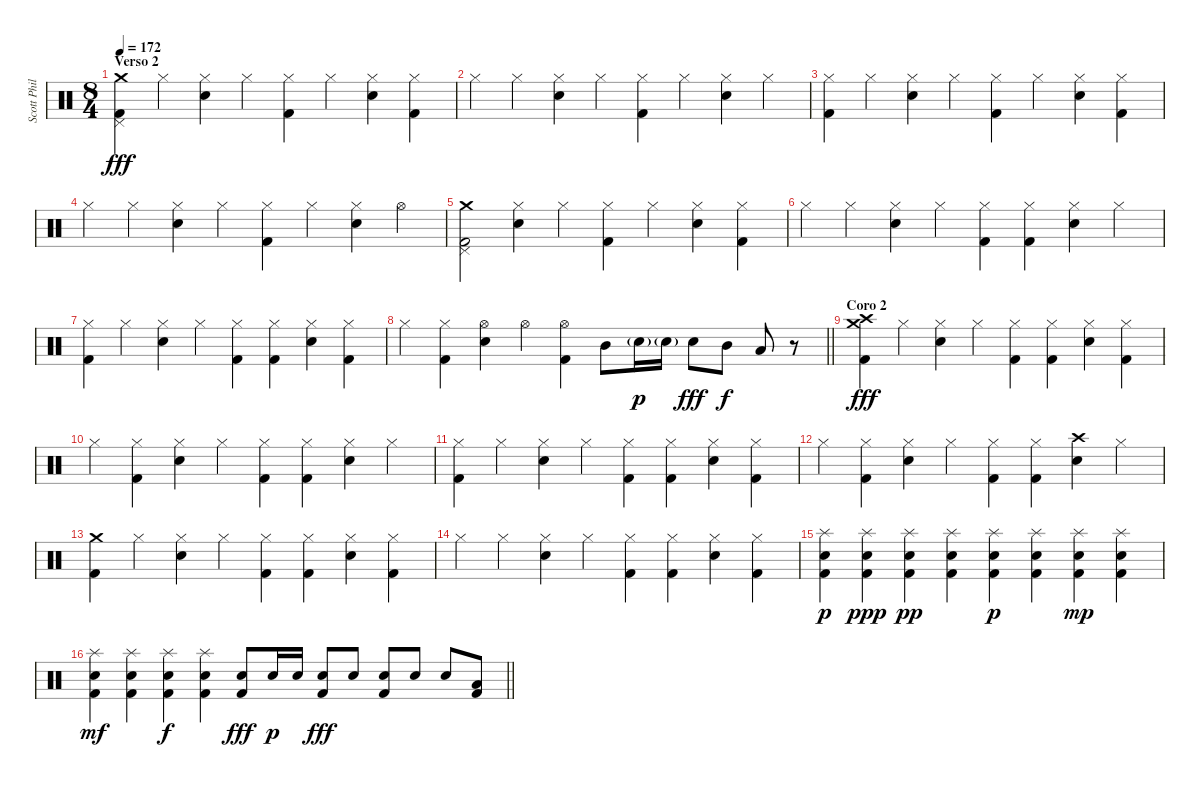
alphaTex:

\track ("Scott Phillips [Drums]" "Scott Phil") {instrument percussion}
\staff {score}
\articulation defaults
\ts (8 4)
\section ("" "Verso 2")
\tempo 172
\clef neutral
\ks c
("Crash medium (hit)" "Pedal Hi-Hat (hit)" "Kick (hit) 2").4{dy fff} "Hi-Hat (closed)".4 ("Hi-Hat (closed)" "Electric Snare (hit)").4 "Hi-Hat (closed)".4 ("Hi-Hat (closed)" "Kick (hit) 2").4 "Hi-Hat (closed)".4 ("Hi-Hat (closed)" "Electric Snare (hit)").4 ("Hi-Hat (closed)" "Kick (hit) 2").4 |
"Hi-Hat (closed)".4 "Hi-Hat (closed)".4 ("Hi-Hat (closed)" "Electric Snare (hit)").4 "Hi-Hat (closed)".4 ("Hi-Hat (closed)" "Kick (hit) 2").4 "Hi-Hat (closed)".4 ("Hi-Hat (closed)" "Electric Snare (hit)").4 "Hi-Hat (closed)".4 |
("Hi-Hat (closed)" "Kick (hit) 2").4 "Hi-Hat (closed)".4 ("Hi-Hat (closed)" "Electric Snare (hit)").4 "Hi-Hat (closed)".4 ("Hi-Hat (closed)" "Kick (hit) 2").4 "Hi-Hat (closed)".4 ("Hi-Hat (closed)" "Electric Snare (hit)").4 ("Hi-Hat (closed)" "Kick (hit) 2").4 |
"Hi-Hat (closed)".4 "Hi-Hat (closed)".4 ("Hi-Hat (closed)" "Electric Snare (hit)").4 "Hi-Hat (closed)".4 ("Hi-Hat (closed)" "Kick (hit) 2").4 "Hi-Hat (closed)".4 ("Hi-Hat (closed)" "Electric Snare (hit)").4 "Hi-Hat (open)".4 |
("Crash medium (hit)" "Pedal Hi-Hat (hit)" "Kick (hit) 2").2 ("Hi-Hat (closed)" "Electric Snare (hit)").4 "Hi-Hat (closed)".4 ("Hi-Hat (closed)" "Kick (hit) 2").4 "Hi-Hat (closed)".4 ("Hi-Hat (closed)" "Electric Snare (hit)").4 ("Hi-Hat (closed)" "Kick (hit) 2").4 |
"Hi-Hat (closed)".4 "Hi-Hat (closed)".4 ("Hi-Hat (closed)" "Electric Snare (hit)").4 "Hi-Hat (closed)".4 ("Hi-Hat (closed)" "Kick (hit) 2").4 ("Hi-Hat (closed)" "Kick (hit) 2").4 ("Hi-Hat (closed)" "Electric Snare (hit)").4 "Hi-Hat (closed)".4 |
("Hi-Hat (closed)" "Kick (hit) 2").4 "Hi-Hat (closed)".4 ("Hi-Hat (closed)" "Electric Snare (hit)").4 "Hi-Hat (closed)".4 ("Hi-Hat (closed)" "Kick (hit) 2").4 ("Hi-Hat (closed)" "Kick (hit) 2").4 ("Hi-Hat (closed)" "Electric Snare (hit)").4 ("Hi-Hat (closed)" "Kick (hit) 2").4 |
\barLineRight lightlight "Hi-Hat (closed)".4
("Hi-Hat (closed)" "Kick (hit) 2").4 ("Hi-Hat (open)" "Electric Snare (hit)").4 "Hi-Hat (open)".4 ("Hi-Hat (open)" "Kick (hit) 2").4 "Mid Tom (hit)".8 "Electric Snare (hit)"{g}.16{dy p} "Electric Snare (hit)"{g}.16 "Electric Snare (hit)".8{dy fff} "Mid Tom (hit)".8{dy f} "Low Floor Tom (hit)".8 r.8 |
\section ("" "Coro 2")
("Crash high (hit)" "Crash medium (hit)" "Kick (hit) 2").4{dy fff} "Hi-Hat (closed)".4 ("Hi-Hat (closed)" "Electric Snare (hit)").4 "Hi-Hat (closed)".4 ("Hi-Hat (closed)" "Kick (hit) 2").4 ("Hi-Hat (closed)" "Kick (hit) 2").4 ("Hi-Hat (closed)" "Electric Snare (hit)").4 ("Hi-Hat (closed)" "Kick (hit) 2").4 |
"Hi-Hat (closed)".4 ("Hi-Hat (closed)" "Kick (hit) 2").4 ("Hi-Hat (closed)" "Electric Snare (hit)").4 "Hi-Hat (closed)".4 ("Hi-Hat (closed)" "Kick (hit) 2").4 ("Hi-Hat (closed)" "Kick (hit) 2").4 ("Hi-Hat (closed)" "Electric Snare (hit)").4 "Hi-Hat (closed)".4 |
("Hi-Hat (closed)" "Kick (hit) 2").4 "Hi-Hat (closed)".4 ("Hi-Hat (closed)" "Electric Snare (hit)").4 "Hi-Hat (closed)".4 ("Hi-Hat (closed)" "Kick (hit) 2").4 ("Hi-Hat (closed)" "Kick (hit) 2").4 ("Hi-Hat (closed)" "Electric Snare (hit)").4 ("Hi-Hat (closed)" "Kick (hit) 2").4 |
"Hi-Hat (closed)".4 ("Hi-Hat (closed)" "Kick (hit) 2").4 ("Hi-Hat (closed)" "Electric Snare (hit)").4 "Hi-Hat (closed)".4 ("Hi-Hat (closed)" "Kick (hit) 2").4 ("Hi-Hat (closed)" "Kick (hit) 2").4 ("Crash high (hit)" "Electric Snare (hit)").4 "Hi-Hat (closed)".4 |
("Crash medium (hit)" "Kick (hit) 2").4 "Hi-Hat (closed)".4 ("Hi-Hat (closed)" "Electric Snare (hit)").4 "Hi-Hat (closed)".4 ("Hi-Hat (closed)" "Kick (hit) 2").4 ("Hi-Hat (closed)" "Kick (hit) 2").4 ("Hi-Hat (closed)" "Electric Snare (hit)").4 ("Hi-Hat (closed)" "Kick (hit) 2").4 |
"Hi-Hat (closed)".4 "Hi-Hat (closed)".4 ("Hi-Hat (closed)" "Electric Snare (hit)").4 "Hi-Hat (closed)".4 ("Hi-Hat (closed)" "Kick (hit) 2").4 ("Hi-Hat (closed)" "Kick (hit) 2").4 ("Hi-Hat (closed)" "Electric Snare (hit)").4 ("Hi-Hat (closed)" "Kick (hit) 2").4 |
("Splash (hit)" "Electric Snare (hit)" "Kick (hit) 2").4{dy p} ("Splash (hit)" "Electric Snare (hit)" "Kick (hit) 2").4{dy ppp} ("Splash (hit)" "Electric Snare (hit)" "Kick (hit) 2").4{dy pp} ("Splash (hit)" "Electric Snare (hit)" "Kick (hit) 2").4 ("Splash (hit)" "Electric Snare (hit)" "Kick (hit) 2").4{dy p} ("Splash (hit)" "Electric Snare (hit)" "Kick (hit) 2").4 ("Splash (hit)" "Electric Snare (hit)" "Kick (hit) 2").4{dy mp} ("Splash (hit)" "Electric Snare (hit)" "Kick (hit) 2").4 |
\barLineRight lightlight
("Splash (hit)" "Electric Snare (hit)" "Kick (hit) 2").4{dy mf} ("Splash (hit)" "Electric Snare (hit)" "Kick (hit) 2").4 ("Splash (hit)" "Electric Snare (hit)" "Kick (hit) 2").4{dy f} ("Splash (hit)" "Electric Snare (hit)" "Kick (hit) 2").4 ("Electric Snare (hit)" "Kick (hit) 2").8{dy fff volume 16} "Electric Snare (hit)".16{dy p} "Electric Snare (hit)".16 ("Electric Snare (hit)" "Kick (hit) 2").8{dy fff} "Electric Snare (hit)".8 ("Electric Snare (hit)" "Kick (hit) 2").8 "Electric Snare (hit)".8 "Electric Snare (hit)".8 ("Low Floor Tom (hit)" "Kick (hit) 2").8
